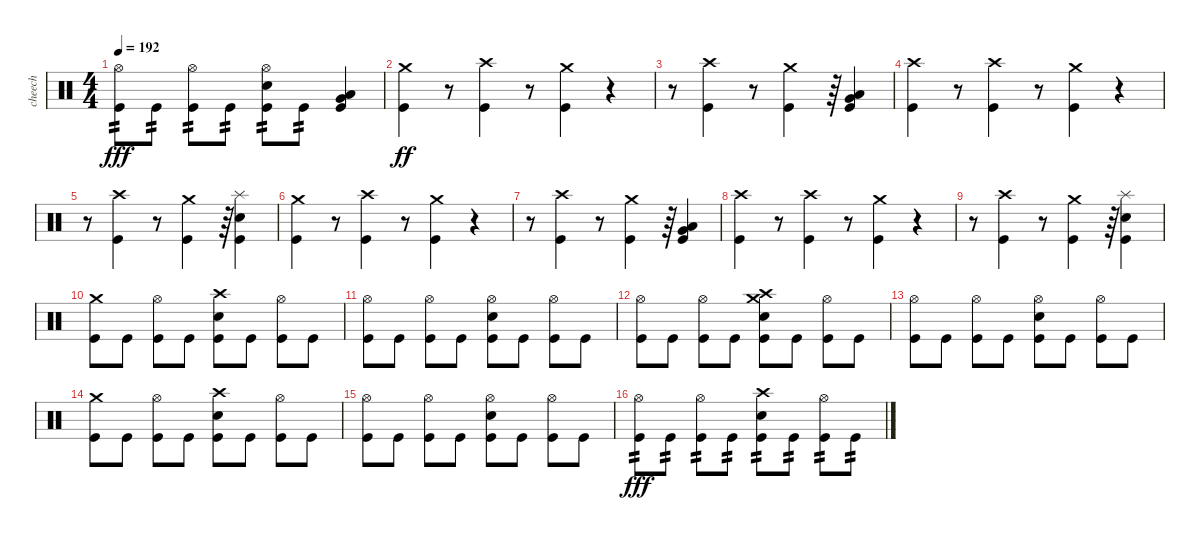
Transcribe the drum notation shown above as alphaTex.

\track ("cheech" "cheech") {instrument percussion}
\staff {score}
\articulation defaults
\ts (4 4)
\tempo 192
\clef neutral
\ks c
("Hi-Hat (open)" "Kick (hit)").8{tp 2 dy fff} "Kick (hit)".8{tp 2} ("Hi-Hat (open)" "Kick (hit)").8{tp 2} "Kick (hit)".8{tp 2} ("Hi-Hat (open)" "Electric Snare (hit)" "Kick (hit)").8{tp 2} "Kick (hit)".8{tp 2} ("Very Low Tom (hit)" "Low Floor Tom (hit)" "Kick (hit)").4 |
("Crash medium (hit)" "Kick (hit)").4{dy ff} r.8 ("Crash high (hit)" "Kick (hit)").4 r.8 ("Crash medium (hit)" "Kick (hit)").4 r.4 |
r.8 ("Crash high (hit)" "Kick (hit)").4 r.8 ("Crash medium (hit)" "Kick (hit)").4 r.64 ("Very Low Tom (hit)" "Low Floor Tom (hit)" "Kick (hit)").4 |
("Crash high (hit)" "Kick (hit)").4 r.8 ("Crash high (hit)" "Kick (hit)").4 r.8 ("Crash medium (hit)" "Kick (hit)").4 r.4 |
r.8 ("Crash high (hit)" "Kick (hit)").4 r.8 ("Crash medium (hit)" "Kick (hit)").4 r.64 ("Splash (hit)" "Electric Snare (hit)" "Kick (hit)").4 |
("Crash medium (hit)" "Kick (hit)").4 r.8 ("Crash high (hit)" "Kick (hit)").4 r.8 ("Crash medium (hit)" "Kick (hit)").4 r.4 |
r.8 ("Crash high (hit)" "Kick (hit)").4 r.8 ("Crash medium (hit)" "Kick (hit)").4 r.64 ("Very Low Tom (hit)" "Low Floor Tom (hit)" "Kick (hit)").4 |
("Crash high (hit)" "Kick (hit)").4 r.8 ("Crash high (hit)" "Kick (hit)").4 r.8 ("Crash medium (hit)" "Kick (hit)").4 r.4 |
r.8 ("Crash high (hit)" "Kick (hit)").4 r.8 ("Crash medium (hit)" "Kick (hit)").4 r.64 ("Splash (hit)" "Electric Snare (hit)" "Kick (hit)").4 |
("Crash medium (hit)" "Kick (hit)").8 "Kick (hit)".8 ("Hi-Hat (open)" "Kick (hit)").8 "Kick (hit)".8 ("Crash high (hit)" "Electric Snare (hit)" "Kick (hit)").8 "Kick (hit)".8 ("Hi-Hat (open)" "Kick (hit)").8 "Kick (hit)".8 |
("Hi-Hat (open)" "Kick (hit)").8 "Kick (hit)".8 ("Hi-Hat (open)" "Kick (hit)").8 "Kick (hit)".8 ("Hi-Hat (open)" "Electric Snare (hit)" "Kick (hit)").8 "Kick (hit)".8 ("Hi-Hat (open)" "Kick (hit)").8 "Kick (hit)".8 |
("Hi-Hat (open)" "Kick (hit)").8 "Kick (hit)".8 ("Hi-Hat (open)" "Kick (hit)").8 "Kick (hit)".8 ("Crash high (hit)" "Crash medium (hit)" "Electric Snare (hit)" "Kick (hit)").8 "Kick (hit)".8 ("Hi-Hat (open)" "Kick (hit)").8 "Kick (hit)".8 |
("Hi-Hat (open)" "Kick (hit)").8 "Kick (hit)".8 ("Hi-Hat (open)" "Kick (hit)").8 "Kick (hit)".8 ("Hi-Hat (open)" "Electric Snare (hit)" "Kick (hit)").8 "Kick (hit)".8 ("Hi-Hat (open)" "Kick (hit)").8 "Kick (hit)".8 |
("Crash medium (hit)" "Kick (hit)").8 "Kick (hit)".8 ("Hi-Hat (open)" "Kick (hit)").8 "Kick (hit)".8 ("Crash high (hit)" "Electric Snare (hit)" "Kick (hit)").8 "Kick (hit)".8 ("Hi-Hat (open)" "Kick (hit)").8 "Kick (hit)".8 |
("Hi-Hat (open)" "Kick (hit)").8 "Kick (hit)".8 ("Hi-Hat (open)" "Kick (hit)").8 "Kick (hit)".8 ("Hi-Hat (open)" "Electric Snare (hit)" "Kick (hit)").8 "Kick (hit)".8 ("Hi-Hat (open)" "Kick (hit)").8 "Kick (hit)".8 |
("Hi-Hat (open)" "Kick (hit)").8{tp 2 dy fff} "Kick (hit)".8{tp 2} ("Hi-Hat (open)" "Kick (hit)").8{tp 2} "Kick (hit)".8{tp 2} ("Crash high (hit)" "Electric Snare (hit)" "Kick (hit)").8{tp 2} "Kick (hit)".8{tp 2} ("Hi-Hat (open)" "Kick (hit)").8{tp 2} "Kick (hit)".8{tp 2}
